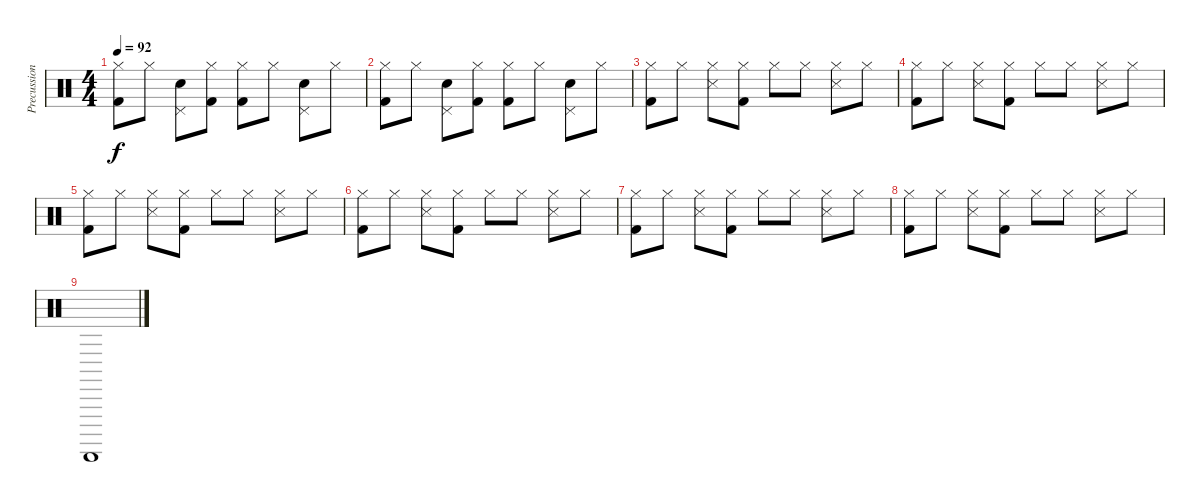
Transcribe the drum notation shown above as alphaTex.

\track ("Precussion" "Precussion") {instrument percussion}
\staff {score}
\articulation defaults
\ts (4 4)
\tempo 92
\clef neutral
\ks c
("Hi-Hat (closed)" "Kick (hit) 2").8{dy f} "Hi-Hat (closed)".8 ("Pedal Hi-Hat (hit)" "Snare (hit) 2").8 ("Hi-Hat (closed)" "Kick (hit) 2").8 ("Hi-Hat (closed)" "Kick (hit) 2").8 "Hi-Hat (closed)".8 ("Pedal Hi-Hat (hit)" "Snare (hit) 2").8 "Hi-Hat (closed)".8 |
("Hi-Hat (closed)" "Kick (hit) 2").8 "Hi-Hat (closed)".8 ("Pedal Hi-Hat (hit)" "Snare (hit) 2").8 ("Hi-Hat (closed)" "Kick (hit) 2").8 ("Hi-Hat (closed)" "Kick (hit) 2").8 "Hi-Hat (closed)".8 ("Pedal Hi-Hat (hit)" "Snare (hit) 2").8 "Hi-Hat (closed)".8 |
("Hi-Hat (closed)" "Kick (hit) 2").8 "Hi-Hat (closed)".8 ("Hi-Hat (closed)" "Snare (side stick) 3").8 ("Hi-Hat (closed)" "Kick (hit) 2").8 "Hi-Hat (closed)".8 "Hi-Hat (closed)".8 ("Hi-Hat (closed)" "Snare (side stick) 3").8 "Hi-Hat (closed)".8 |
("Hi-Hat (closed)" "Kick (hit) 2").8 "Hi-Hat (closed)".8 ("Hi-Hat (closed)" "Snare (side stick) 3").8 ("Hi-Hat (closed)" "Kick (hit) 2").8 "Hi-Hat (closed)".8 "Hi-Hat (closed)".8 ("Hi-Hat (closed)" "Snare (side stick) 3").8 "Hi-Hat (closed)".8 |
("Hi-Hat (closed)" "Kick (hit) 2").8 "Hi-Hat (closed)".8 ("Hi-Hat (closed)" "Snare (side stick) 3").8 ("Hi-Hat (closed)" "Kick (hit) 2").8 "Hi-Hat (closed)".8 "Hi-Hat (closed)".8 ("Hi-Hat (closed)" "Snare (side stick) 3").8 "Hi-Hat (closed)".8 |
("Hi-Hat (closed)" "Kick (hit) 2").8 "Hi-Hat (closed)".8 ("Hi-Hat (closed)" "Snare (side stick) 3").8 ("Hi-Hat (closed)" "Kick (hit) 2").8 "Hi-Hat (closed)".8 "Hi-Hat (closed)".8 ("Hi-Hat (closed)" "Snare (side stick) 3").8 "Hi-Hat (closed)".8 |
("Hi-Hat (closed)" "Kick (hit) 2").8 "Hi-Hat (closed)".8 ("Hi-Hat (closed)" "Snare (side stick) 3").8 ("Hi-Hat (closed)" "Kick (hit) 2").8 "Hi-Hat (closed)".8 "Hi-Hat (closed)".8 ("Hi-Hat (closed)" "Snare (side stick) 3").8 "Hi-Hat (closed)".8 |
("Hi-Hat (closed)" "Kick (hit) 2").8 "Hi-Hat (closed)".8 ("Hi-Hat (closed)" "Snare (side stick) 3").8 ("Hi-Hat (closed)" "Kick (hit) 2").8 "Hi-Hat (closed)".8 "Hi-Hat (closed)".8 ("Hi-Hat (closed)" "Snare (side stick) 3").8 "Hi-Hat (closed)".8 |
"Guiro (scrap-return)".1
